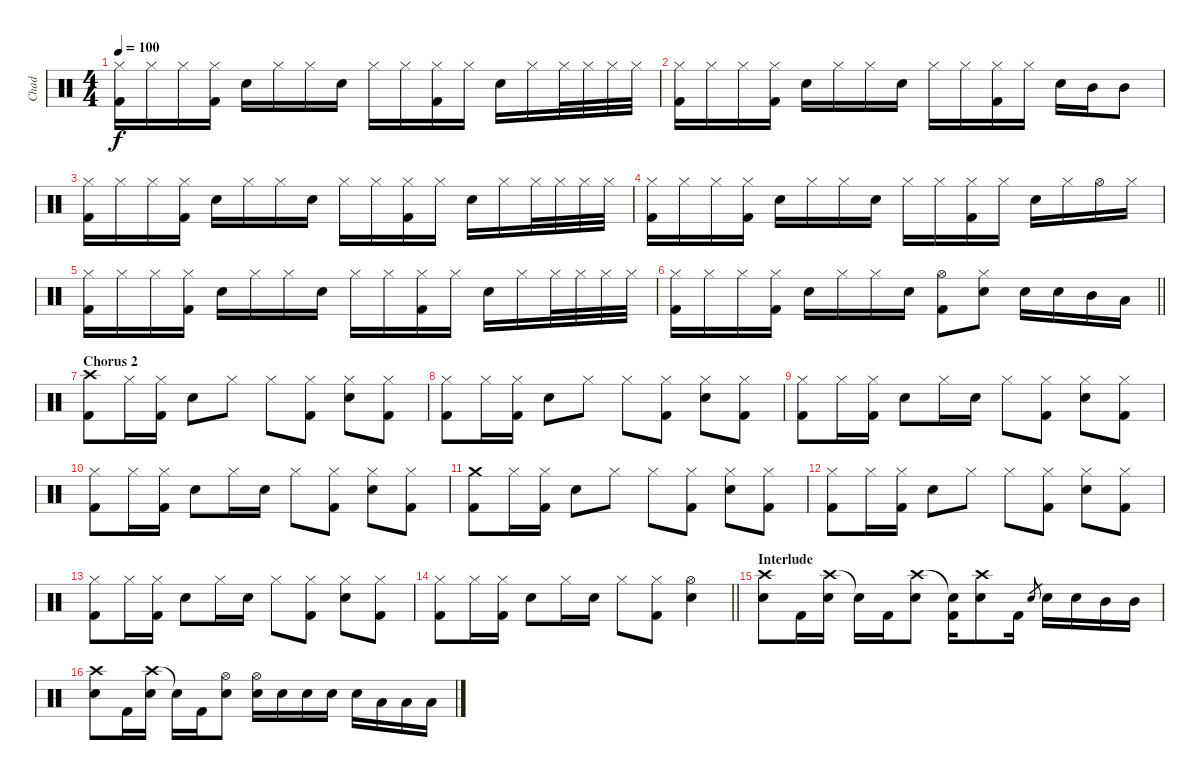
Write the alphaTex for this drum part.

\track ("Chad" "Chad") {instrument percussion}
\staff {score}
\articulation defaults
\ts (4 4)
\tempo 100
\clef neutral
\ks c
("Hi-Hat (closed)" "Kick (hit) 2").16{dy f} "Hi-Hat (closed)".16 "Hi-Hat (closed)".16 ("Hi-Hat (closed)" "Kick (hit) 2").16 "Electric Snare (hit)".16 "Hi-Hat (closed)".16 "Hi-Hat (closed)".16 "Electric Snare (hit)".16 "Hi-Hat (closed)".16 "Hi-Hat (closed)".16 ("Hi-Hat (closed)" "Kick (hit) 2").16 "Hi-Hat (closed)".16 "Electric Snare (hit)".16 "Hi-Hat (closed)".16 "Hi-Hat (closed)".32 "Hi-Hat (closed)".32 "Hi-Hat (closed)".32 "Hi-Hat (closed)".32 |
("Hi-Hat (closed)" "Kick (hit) 2").16 "Hi-Hat (closed)".16 "Hi-Hat (closed)".16 ("Hi-Hat (closed)" "Kick (hit) 2").16 "Electric Snare (hit)".16 "Hi-Hat (closed)".16 "Hi-Hat (closed)".16 "Electric Snare (hit)".16 "Hi-Hat (closed)".16 "Hi-Hat (closed)".16 ("Hi-Hat (closed)" "Kick (hit) 2").16 "Hi-Hat (closed)".16 "Electric Snare (hit)".16 "Mid Tom (hit)".16 "Mid Tom (hit)".8 |
("Hi-Hat (closed)" "Kick (hit) 2").16 "Hi-Hat (closed)".16 "Hi-Hat (closed)".16 ("Hi-Hat (closed)" "Kick (hit) 2").16 "Electric Snare (hit)".16 "Hi-Hat (closed)".16 "Hi-Hat (closed)".16 "Electric Snare (hit)".16 "Hi-Hat (closed)".16 "Hi-Hat (closed)".16 ("Hi-Hat (closed)" "Kick (hit) 2").16 "Hi-Hat (closed)".16 "Electric Snare (hit)".16 "Hi-Hat (closed)".16 "Hi-Hat (closed)".32 "Hi-Hat (closed)".32 "Hi-Hat (closed)".32 "Hi-Hat (closed)".32 |
("Hi-Hat (closed)" "Kick (hit) 2").16 "Hi-Hat (closed)".16 "Hi-Hat (closed)".16 ("Hi-Hat (closed)" "Kick (hit) 2").16 "Electric Snare (hit)".16 "Hi-Hat (closed)".16 "Hi-Hat (closed)".16 "Electric Snare (hit)".16 "Hi-Hat (closed)".16 "Hi-Hat (closed)".16 ("Hi-Hat (closed)" "Kick (hit) 2").16 "Hi-Hat (closed)".16 "Electric Snare (hit)".16 "Hi-Hat (closed)".16 "Hi-Hat (open)".16 "Hi-Hat (closed)".16 |
("Hi-Hat (closed)" "Kick (hit) 2").16 "Hi-Hat (closed)".16 "Hi-Hat (closed)".16 ("Hi-Hat (closed)" "Kick (hit) 2").16 "Electric Snare (hit)".16 "Hi-Hat (closed)".16 "Hi-Hat (closed)".16 "Electric Snare (hit)".16 "Hi-Hat (closed)".16 "Hi-Hat (closed)".16 ("Hi-Hat (closed)" "Kick (hit) 2").16 "Hi-Hat (closed)".16 "Electric Snare (hit)".16 "Hi-Hat (closed)".16 "Hi-Hat (closed)".32 "Hi-Hat (closed)".32 "Hi-Hat (closed)".32 "Hi-Hat (closed)".32 |
\barLineRight lightlight
("Hi-Hat (closed)" "Kick (hit) 2").16 "Hi-Hat (closed)".16 "Hi-Hat (closed)".16 ("Hi-Hat (closed)" "Kick (hit) 2").16 "Electric Snare (hit)".16 "Hi-Hat (closed)".16 "Hi-Hat (closed)".16 "Electric Snare (hit)".16 ("Hi-Hat (open)" "Kick (hit) 2").8 ("Hi-Hat (closed)" "Electric Snare (hit)").8 "Electric Snare (hit)".16 "Electric Snare (hit)".16 "Mid Tom (hit)".16 "Low Tom (hit)".16 |
\section ("" "Chorus 2")
("Crash high (hit)" "Kick (hit) 2").8 "Hi-Hat (closed)".16 ("Hi-Hat (closed)" "Kick (hit) 2").16 "Electric Snare (hit)".8 "Hi-Hat (closed)".8 "Hi-Hat (closed)".8 ("Hi-Hat (closed)" "Kick (hit) 2").8 ("Hi-Hat (closed)" "Electric Snare (hit)").8 ("Hi-Hat (closed)" "Kick (hit) 2").8 |
("Hi-Hat (closed)" "Kick (hit) 2").8 "Hi-Hat (closed)".16 ("Hi-Hat (closed)" "Kick (hit) 2").16 "Electric Snare (hit)".8 "Hi-Hat (closed)".8 "Hi-Hat (closed)".8 ("Hi-Hat (closed)" "Kick (hit) 2").8 ("Hi-Hat (closed)" "Electric Snare (hit)").8 ("Hi-Hat (closed)" "Kick (hit) 2").8 |
("Hi-Hat (closed)" "Kick (hit) 2").8 "Hi-Hat (closed)".16 ("Hi-Hat (closed)" "Kick (hit) 2").16 "Electric Snare (hit)".8 "Hi-Hat (closed)".16 "Electric Snare (hit)".16 "Hi-Hat (closed)".8 ("Hi-Hat (closed)" "Kick (hit) 2").8 ("Hi-Hat (closed)" "Electric Snare (hit)").8 ("Hi-Hat (closed)" "Kick (hit) 2").8 |
("Hi-Hat (closed)" "Kick (hit) 2").8 "Hi-Hat (closed)".16 ("Hi-Hat (closed)" "Kick (hit) 2").16 "Electric Snare (hit)".8 "Hi-Hat (closed)".16 "Electric Snare (hit)".16 "Hi-Hat (closed)".8 ("Hi-Hat (closed)" "Kick (hit) 2").8 ("Hi-Hat (closed)" "Electric Snare (hit)").8 ("Hi-Hat (closed)" "Kick (hit) 2").8 |
("Crash medium (hit)" "Kick (hit) 2").8 "Hi-Hat (closed)".16 ("Hi-Hat (closed)" "Kick (hit) 2").16 "Electric Snare (hit)".8 "Hi-Hat (closed)".8 "Hi-Hat (closed)".8 ("Hi-Hat (closed)" "Kick (hit) 2").8 ("Hi-Hat (closed)" "Electric Snare (hit)").8 ("Hi-Hat (closed)" "Kick (hit) 2").8 |
("Hi-Hat (closed)" "Kick (hit) 2").8 "Hi-Hat (closed)".16 ("Hi-Hat (closed)" "Kick (hit) 2").16 "Electric Snare (hit)".8 "Hi-Hat (closed)".8 "Hi-Hat (closed)".8 ("Hi-Hat (closed)" "Kick (hit) 2").8 ("Hi-Hat (closed)" "Electric Snare (hit)").8 ("Hi-Hat (closed)" "Kick (hit) 2").8 |
("Hi-Hat (closed)" "Kick (hit) 2").8 "Hi-Hat (closed)".16 ("Hi-Hat (closed)" "Kick (hit) 2").16 "Electric Snare (hit)".8 "Hi-Hat (closed)".16 "Electric Snare (hit)".16 "Hi-Hat (closed)".8 ("Hi-Hat (closed)" "Kick (hit) 2").8 ("Hi-Hat (closed)" "Electric Snare (hit)").8 ("Hi-Hat (closed)" "Kick (hit) 2").8 |
\barLineRight lightlight
("Hi-Hat (closed)" "Kick (hit) 2").8 "Hi-Hat (closed)".16 ("Hi-Hat (closed)" "Kick (hit) 2").16 "Electric Snare (hit)".8 "Hi-Hat (closed)".16 "Electric Snare (hit)".16 "Hi-Hat (closed)".8 ("Hi-Hat (closed)" "Kick (hit) 2").8 ("Hi-Hat (open)" "Electric Snare (hit)").4 |
\section ("" "Interlude")
("Crash high (hit)" "Electric Snare (hit)").8 "Kick (hit) 2".16 ("Crash high (hit)" "Electric Snare (hit)").16 "Snare (hit)"{t}.16 "Kick (hit) 2".16 ("Crash high (hit)" "Electric Snare (hit)").8 ("Snare (hit)"{t} "Kick (hit) 2").16 ("Crash high (hit)" "Electric Snare (hit)").8 "Kick (hit) 2".16 "Electric Snare (hit)".8{gr} "Electric Snare (hit)".16 "Electric Snare (hit)".16 "Mid Tom (hit)".16 "Mid Tom (hit)".16 |
("Crash high (hit)" "Electric Snare (hit)").8 "Kick (hit) 2".16 ("Crash high (hit)" "Electric Snare (hit)").16 "Snare (hit)"{t}.16 "Kick (hit) 2".16 ("Hi-Hat (open)" "Electric Snare (hit)").8 ("Hi-Hat (open)" "Electric Snare (hit)").16 "Electric Snare (hit)".16 "Electric Snare (hit)".16 "Electric Snare (hit)".16 "Electric Snare (hit)".16 "Low Tom (hit)".16 "Low Tom (hit)".16 "Low Tom (hit)".16
